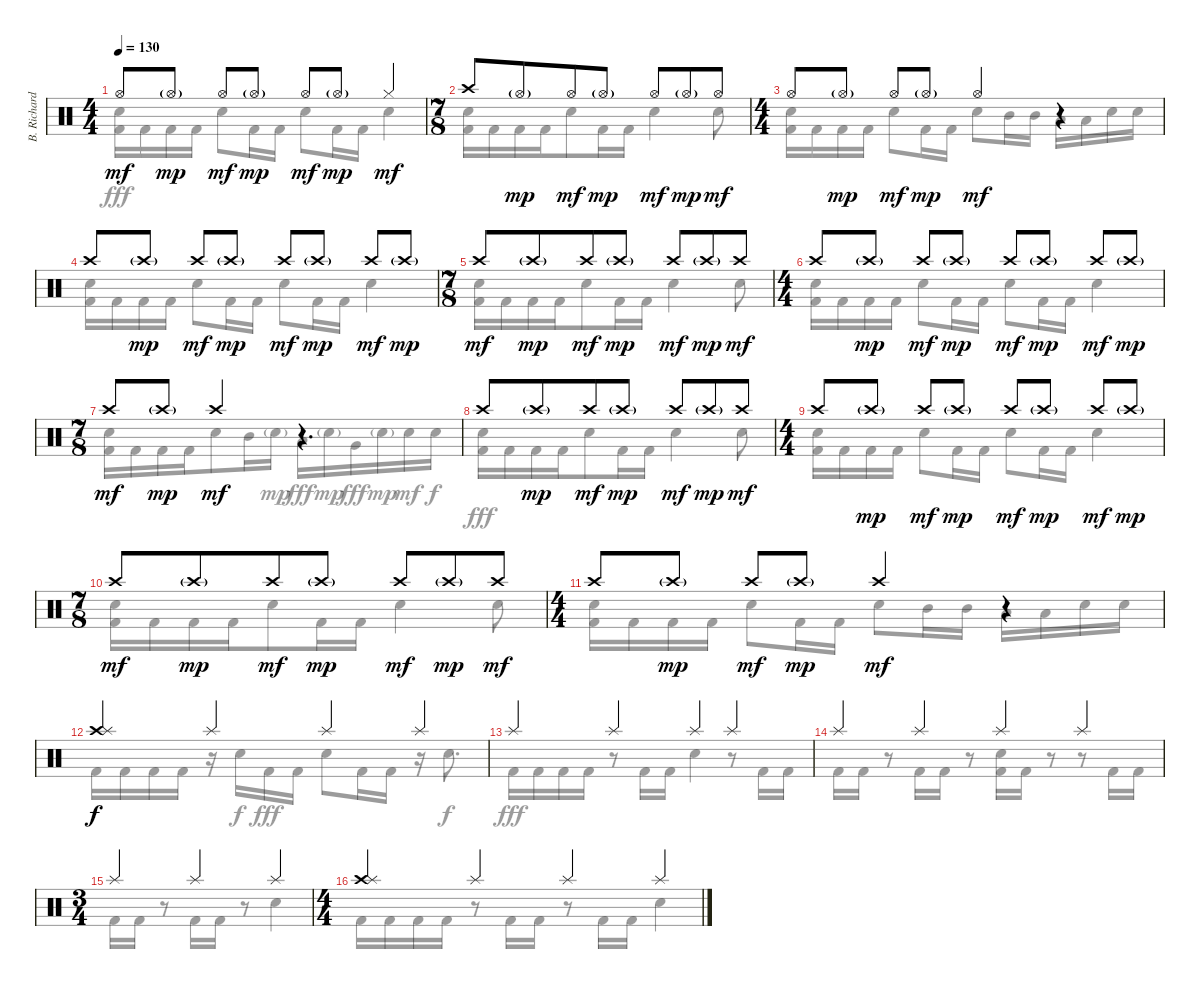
\track ("B. Richardson Drums" "B. Richard") {instrument percussion}
\staff {score}
\articulation defaults
\voice
\ts (4 4)
\tempo 130
\clef neutral
\ks c "Hi-Hat (open)".8{dy mf} "Hi-Hat (open)"{g}.8{dy mp} "Hi-Hat (open)".8{dy mf} "Hi-Hat (open)"{g}.8{dy mp} "Hi-Hat (open)".8{dy mf} "Hi-Hat (open)"{g}.8{dy mp} "Hi-Hat (closed)".4{dy mf}
|
\ts (7 8)
"Crash high (hit)".8 "Hi-Hat (open)"{g}.8{dy mp} "Hi-Hat (open)".8{dy mf} "Hi-Hat (open)"{g}.8{dy mp} "Hi-Hat (open)".8{dy mf} "Hi-Hat (open)"{g}.8{dy mp} "Hi-Hat (open)".8{dy mf} |
\ts (4 4)
"Hi-Hat (open)".8 "Hi-Hat (open)"{g}.8{dy mp} "Hi-Hat (open)".8{dy mf} "Hi-Hat (open)"{g}.8{dy mp} "Hi-Hat (open)".4{dy mf} r.4 |
"Crash high (hit)".8 "Crash high (hit)"{g}.8{dy mp} "Crash high (hit)".8{dy mf} "Crash high (hit)"{g}.8{dy mp} "Crash high (hit)".8{dy mf} "Crash high (hit)"{g}.8{dy mp} "Crash high (hit)".8{dy mf} "Crash high (hit)"{g}.8{dy mp} |
\ts (7 8)
"Crash high (hit)".8{dy mf} "Crash high (hit)"{g}.8{dy mp} "Crash high (hit)".8{dy mf} "Crash high (hit)"{g}.8{dy mp} "Crash high (hit)".8{dy mf} "Crash high (hit)"{g}.8{dy mp} "Crash high (hit)".8{dy mf} |
\ts (4 4)
"Crash high (hit)".8 "Crash high (hit)"{g}.8{dy mp} "Crash high (hit)".8{dy mf} "Crash high (hit)"{g}.8{dy mp} "Crash high (hit)".8{dy mf} "Crash high (hit)"{g}.8{dy mp} "Crash high (hit)".8{dy mf} "Crash high (hit)"{g}.8{dy mp} |
\ts (7 8)
"Crash high (hit)".8{dy mf} "Crash high (hit)"{g}.8{dy mp} "Crash high (hit)".4{dy mf} r.4{d} |
"Crash high (hit)".8 "Crash high (hit)"{g}.8{dy mp} "Crash high (hit)".8{dy mf} "Crash high (hit)"{g}.8{dy mp} "Crash high (hit)".8{dy mf} "Crash high (hit)"{g}.8{dy mp} "Crash high (hit)".8{dy mf} |
\ts (4 4)
"Crash high (hit)".8 "Crash high (hit)"{g}.8{dy mp} "Crash high (hit)".8{dy mf} "Crash high (hit)"{g}.8{dy mp} "Crash high (hit)".8{dy mf} "Crash high (hit)"{g}.8{dy mp} "Crash high (hit)".8{dy mf} "Crash high (hit)"{g}.8{dy mp} |
\ts (7 8)
"Crash high (hit)".8{dy mf} "Crash high (hit)"{g}.8{dy mp} "Crash high (hit)".8{dy mf} "Crash high (hit)"{g}.8{dy mp} "Crash high (hit)".8{dy mf} "Crash high (hit)"{g}.8{dy mp} "Crash high (hit)".8{dy mf} |
\ts (4 4)
"Crash high (hit)".8 "Crash high (hit)"{g}.8{dy mp} "Crash high (hit)".8{dy mf} "Crash high (hit)"{g}.8{dy mp} "Crash high (hit)".4{dy mf} r.4 |
("Crash high (hit)" "Splash (hit)").4{dy f} "Splash (hit)".4 "Splash (hit)".4 "Splash (hit)".4 |
"Splash (hit)".4 "Splash (hit)".4 "Splash (hit)".4 "Splash (hit)".4 |
"Splash (hit)".4 "Splash (hit)".4 "Splash (hit)".4 "Splash (hit)".4 |
\ts (3 4)
"Splash (hit)".4 "Splash (hit)".4 "Splash (hit)".4 |
\ts (4 4)
("Crash high (hit)" "Splash (hit)").4 "Splash (hit)".4 "Splash (hit)".4 "Splash (hit)".4
\voice
\clef neutral
\ottava regular
\simile none
\ks c
("Electric Snare (hit)" "Kick (hit) 2").16{dy fff} "Kick (hit) 2".16 "Kick (hit) 2".16 "Kick (hit) 2".16 "Electric Snare (hit)".8 "Kick (hit) 2".16 "Kick (hit) 2".16 "Electric Snare (hit)".8 "Kick (hit) 2".16 "Kick (hit) 2".16 "Electric Snare (hit)".4 |
("Electric Snare (hit)" "Kick (hit) 2").16 "Kick (hit) 2".16 "Kick (hit) 2".16 "Kick (hit) 2".16 "Electric Snare (hit)".8 "Kick (hit) 2".16 "Kick (hit) 2".16 "Electric Snare (hit)".4 "Electric Snare (hit)".8 |
("Electric Snare (hit)" "Kick (hit) 2").16 "Kick (hit) 2".16 "Kick (hit) 2".16 "Kick (hit) 2".16 "Electric Snare (hit)".8 "Kick (hit) 2".16 "Kick (hit) 2".16 "Electric Snare (hit)".8 "Mid Tom (hit)".16 "Mid Tom (hit)".16 "Low Tom (hit)".16 "Low Tom (hit)".16 "Electric Snare (hit)".16 "Electric Snare (hit)".16 |
("Electric Snare (hit)" "Kick (hit) 2").16 "Kick (hit) 2".16 "Kick (hit) 2".16 "Kick (hit) 2".16 "Electric Snare (hit)".8 "Kick (hit) 2".16 "Kick (hit) 2".16 "Electric Snare (hit)".8 "Kick (hit) 2".16 "Kick (hit) 2".16 "Electric Snare (hit)".4 |
("Electric Snare (hit)" "Kick (hit) 2").16 "Kick (hit) 2".16 "Kick (hit) 2".16 "Kick (hit) 2".16 "Electric Snare (hit)".8 "Kick (hit) 2".16 "Kick (hit) 2".16 "Electric Snare (hit)".4 "Electric Snare (hit)".8 |
("Electric Snare (hit)" "Kick (hit) 2").16 "Kick (hit) 2".16 "Kick (hit) 2".16 "Kick (hit) 2".16 "Electric Snare (hit)".8 "Kick (hit) 2".16 "Kick (hit) 2".16 "Electric Snare (hit)".8 "Kick (hit) 2".16 "Kick (hit) 2".16 "Electric Snare (hit)".4 |
("Electric Snare (hit)" "Kick (hit) 2").16 "Kick (hit) 2".16 "Kick (hit) 2".16 "Kick (hit) 2".16 "Electric Snare (hit)".8 "Mid Tom (hit)".16 "Electric Snare (hit)"{g}.16{dy mp} "Low Tom (hit)".16{dy fff} "Electric Snare (hit)"{g}.16{dy mp} "Very Low Tom (hit)".16{dy fff} "Electric Snare (hit)"{g}.16{dy mp} "Electric Snare (hit)".16{dy mf} "Electric Snare (hit)".16{dy f} |
("Electric Snare (hit)" "Kick (hit) 2").16{dy fff} "Kick (hit) 2".16 "Kick (hit) 2".16 "Kick (hit) 2".16 "Electric Snare (hit)".8 "Kick (hit) 2".16 "Kick (hit) 2".16 "Electric Snare (hit)".4 "Electric Snare (hit)".8 |
("Electric Snare (hit)" "Kick (hit) 2").16 "Kick (hit) 2".16 "Kick (hit) 2".16 "Kick (hit) 2".16 "Electric Snare (hit)".8 "Kick (hit) 2".16 "Kick (hit) 2".16 "Electric Snare (hit)".8 "Kick (hit) 2".16 "Kick (hit) 2".16 "Electric Snare (hit)".4 |
("Electric Snare (hit)" "Kick (hit) 2").16 "Kick (hit) 2".16 "Kick (hit) 2".16 "Kick (hit) 2".16 "Electric Snare (hit)".8 "Kick (hit) 2".16 "Kick (hit) 2".16 "Electric Snare (hit)".4 "Electric Snare (hit)".8 |
("Electric Snare (hit)" "Kick (hit) 2").16 "Kick (hit) 2".16 "Kick (hit) 2".16 "Kick (hit) 2".16 "Electric Snare (hit)".8 "Kick (hit) 2".16 "Kick (hit) 2".16 "Electric Snare (hit)".8 "Mid Tom (hit)".16 "Mid Tom (hit)".16 "Low Tom (hit)".16 "Low Tom (hit)".16 "Electric Snare (hit)".16 "Electric Snare (hit)".16 |
"Kick (hit) 2".16 "Kick (hit) 2".16 "Kick (hit) 2".16 "Kick (hit) 2".16 r.16 "Electric Snare (hit)".16{dy f} "Kick (hit) 2".16{dy fff} "Kick (hit) 2".16 "Electric Snare (hit)".8 "Kick (hit) 2".16 "Kick (hit) 2".16 r.16 "Electric Snare (hit)".8{d dy f} |
"Kick (hit) 2".16{dy fff} "Kick (hit) 2".16 "Kick (hit) 2".16 "Kick (hit) 2".16 r.8 "Kick (hit) 2".16 "Kick (hit) 2".16 "Electric Snare (hit)".4 r.8 "Kick (hit) 2".16 "Kick (hit) 2".16 |
"Kick (hit) 2".16 "Kick (hit) 2".16 r.8 "Kick (hit) 2".16 "Kick (hit) 2".16 r.8 ("Electric Snare (hit)" "Kick (hit) 2").16 "Kick (hit) 2".16 r.8 r.8 "Kick (hit) 2".16 "Kick (hit) 2".16 |
"Kick (hit) 2".16 "Kick (hit) 2".16 r.8 "Kick (hit) 2".16 "Kick (hit) 2".16 r.8 "Electric Snare (hit)".4 |
"Kick (hit) 2".16 "Kick (hit) 2".16 "Kick (hit) 2".16 "Kick (hit) 2".16 r.8 "Kick (hit) 2".16 "Kick (hit) 2".16 r.8 "Kick (hit) 2".16 "Kick (hit) 2".16 "Electric Snare (hit)".4
